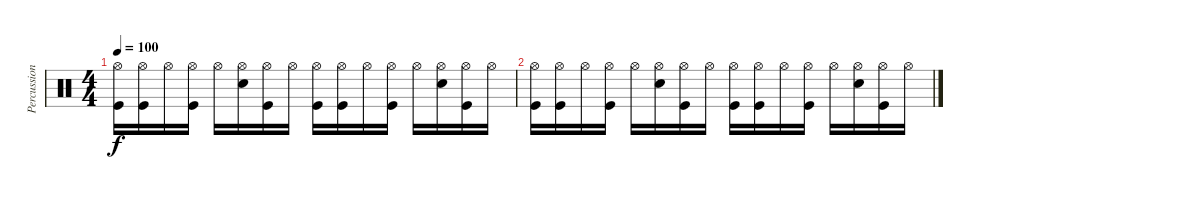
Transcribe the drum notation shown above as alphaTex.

\track ("Percussion" "Percussion") {instrument percussion}
\staff {score}
\articulation defaults
\ts (4 4)
\tempo 100
\clef neutral
\ks c
("Hi-Hat (open)" "Kick (hit)").16{dy f} ("Hi-Hat (open)" "Kick (hit)").16 "Hi-Hat (open)".16 ("Hi-Hat (open)" "Kick (hit)").16 "Hi-Hat (open)".16 ("Hi-Hat (open)" "Snare (hit) 2").16 ("Hi-Hat (open)" "Kick (hit)").16 "Hi-Hat (open)".16 ("Hi-Hat (open)" "Kick (hit)").16 ("Hi-Hat (open)" "Kick (hit)").16 "Hi-Hat (open)".16 ("Hi-Hat (open)" "Kick (hit)").16 "Hi-Hat (open)".16 ("Hi-Hat (open)" "Snare (hit) 2").16 ("Hi-Hat (open)" "Kick (hit)").16 "Hi-Hat (open)".16 |
("Hi-Hat (open)" "Kick (hit)").16 ("Hi-Hat (open)" "Kick (hit)").16 "Hi-Hat (open)".16 ("Hi-Hat (open)" "Kick (hit)").16 "Hi-Hat (open)".16 ("Hi-Hat (open)" "Snare (hit) 2").16 ("Hi-Hat (open)" "Kick (hit)").16 "Hi-Hat (open)".16 ("Hi-Hat (open)" "Kick (hit)").16 ("Hi-Hat (open)" "Kick (hit)").16 "Hi-Hat (open)".16 ("Hi-Hat (open)" "Kick (hit)").16 "Hi-Hat (open)".16 ("Hi-Hat (open)" "Snare (hit) 2").16 ("Hi-Hat (open)" "Kick (hit)").16 "Hi-Hat (open)".16
